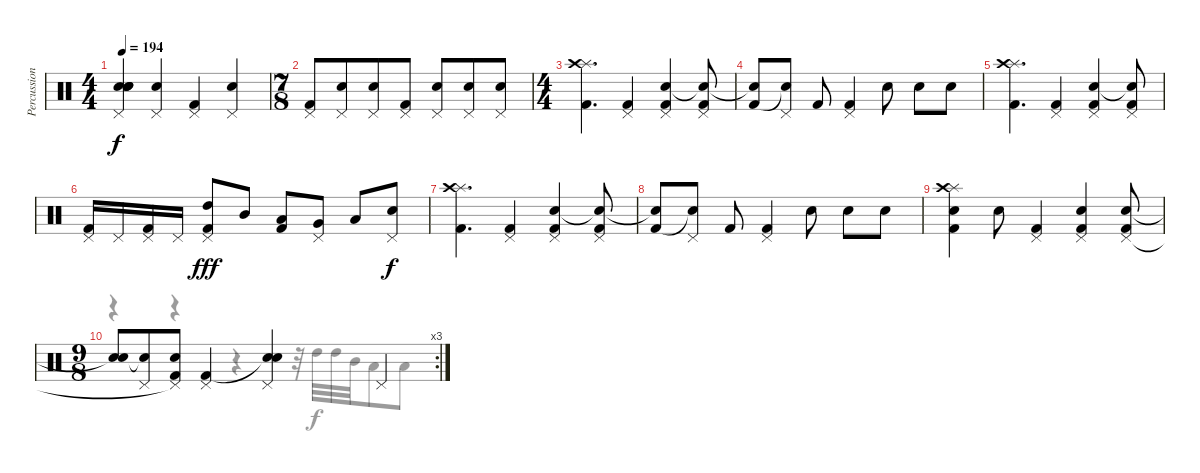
\track ("Percussion" "Percussion") {instrument percussion}
\staff {score}
\articulation defaults
\voice
\ts (4 4)
\tempo 194
\clef neutral
\ks c
("Snare (hit)"{t} "Snare (hit)"{t} "Pedal Hi-Hat (hit)"{t} "Snare (hit)"{t} "Snare (hit)"{t}).4{dy f} ("Electric Snare (hit)" "Pedal Hi-Hat (hit)").4 ("Kick (hit) 2" "Pedal Hi-Hat (hit)").4 ("Electric Snare (hit)" "Pedal Hi-Hat (hit)").4 |
\ts (7 8)
("Kick (hit) 2" "Pedal Hi-Hat (hit)").8 ("Electric Snare (hit)" "Pedal Hi-Hat (hit)").8 ("Electric Snare (hit)" "Pedal Hi-Hat (hit)").8 ("Kick (hit) 2" "Pedal Hi-Hat (hit)").8 ("Electric Snare (hit)" "Pedal Hi-Hat (hit)").8 ("Electric Snare (hit)" "Pedal Hi-Hat (hit)").8 ("Electric Snare (hit)" "Pedal Hi-Hat (hit)").8 |
\ts (4 4)
("Kick (hit) 2" "Splash (hit)" "Crash high (hit)").4{d} ("Kick (hit) 2" "Pedal Hi-Hat (hit)").4 ("Kick (hit) 2" "Electric Snare (hit)" "Pedal Hi-Hat (hit)").4 ("Kick (hit) 2" "Snare (hit)"{t} "Pedal Hi-Hat (hit)").8 |
("Kick (hit) 2" "Snare (hit)"{t}).8 ("Snare (hit)"{t} "Pedal Hi-Hat (hit)").8 "Kick (hit) 2".8 ("Kick (hit) 2" "Pedal Hi-Hat (hit)").4 "Electric Snare (hit)".8 "Electric Snare (hit)".8 "Electric Snare (hit)".8 |
("Kick (hit) 2" "Splash (hit)" "Crash high (hit)").4{d} ("Kick (hit) 2" "Pedal Hi-Hat (hit)").4 ("Kick (hit) 2" "Electric Snare (hit)" "Pedal Hi-Hat (hit)").4 ("Kick (hit) 2" "Snare (hit)"{t} "Pedal Hi-Hat (hit)").8 |
("Kick (hit) 2" "Pedal Hi-Hat (hit)").16 "Pedal Hi-Hat (hit)".16 ("Kick (hit) 2" "Pedal Hi-Hat (hit)").16 "Pedal Hi-Hat (hit)".16 ("Kick (hit) 2" "High Tom (hit)" "Pedal Hi-Hat (hit)").8{dy fff} "Mid Tom (hit)".8 ("Kick (hit) 2" "Low Tom (hit)").8 ("Very Low Tom (hit)" "Pedal Hi-Hat (hit)").8 "Low Floor Tom (hit)".8 ("Electric Snare (hit)" "Pedal Hi-Hat (hit)").8{dy f} |
("Kick (hit) 2" "Splash (hit)" "Crash high (hit)").4{d} ("Kick (hit) 2" "Pedal Hi-Hat (hit)").4 ("Kick (hit) 2" "Electric Snare (hit)" "Pedal Hi-Hat (hit)").4 ("Kick (hit) 2" "Snare (hit)"{t} "Pedal Hi-Hat (hit)").8 |
("Kick (hit) 2" "Snare (hit)"{t}).8 ("Snare (hit)"{t} "Pedal Hi-Hat (hit)").8 "Kick (hit) 2".8 ("Kick (hit) 2" "Pedal Hi-Hat (hit)").4 "Electric Snare (hit)".8 "Electric Snare (hit)".8 "Electric Snare (hit)".8 |
("Kick (hit) 2" "Electric Snare (hit)" "Splash (hit)" "Crash high (hit)").4 "Electric Snare (hit)".8 ("Kick (hit) 2" "Pedal Hi-Hat (hit)").4 ("Kick (hit) 2" "Electric Snare (hit)" "Pedal Hi-Hat (hit)").4 ("Kick (hit) 2" "Electric Snare (hit)" "Pedal Hi-Hat (hit)").8 |
\rc 3
\ts (9 8)
("Electric Snare (hit)" "Snare (hit)"{t}).8 ("Snare (hit)"{t} "Pedal Hi-Hat (hit)").8 ("Kick (hit) 2" "Electric Snare (hit)" "Pedal Hi-Hat (hit)"{t}).8 ("Kick (hit) 2" "Pedal Hi-Hat (hit)").4 ("Snare (hit)"{t} "Electric Snare (hit)" "Pedal Hi-Hat (hit)").4 "Pedal Hi-Hat (hit)".4
\voice
\clef neutral
\ottava regular
\simile none
\ks c
|
|
|
|
|
|
|
|
|
r.4 r.4 r.4 r.32 "High Tom (hit)".32 "High Tom (hit)".32 "Mid Tom (hit)".32 "Low Tom (hit)".8 "Low Floor Tom (hit)".8
